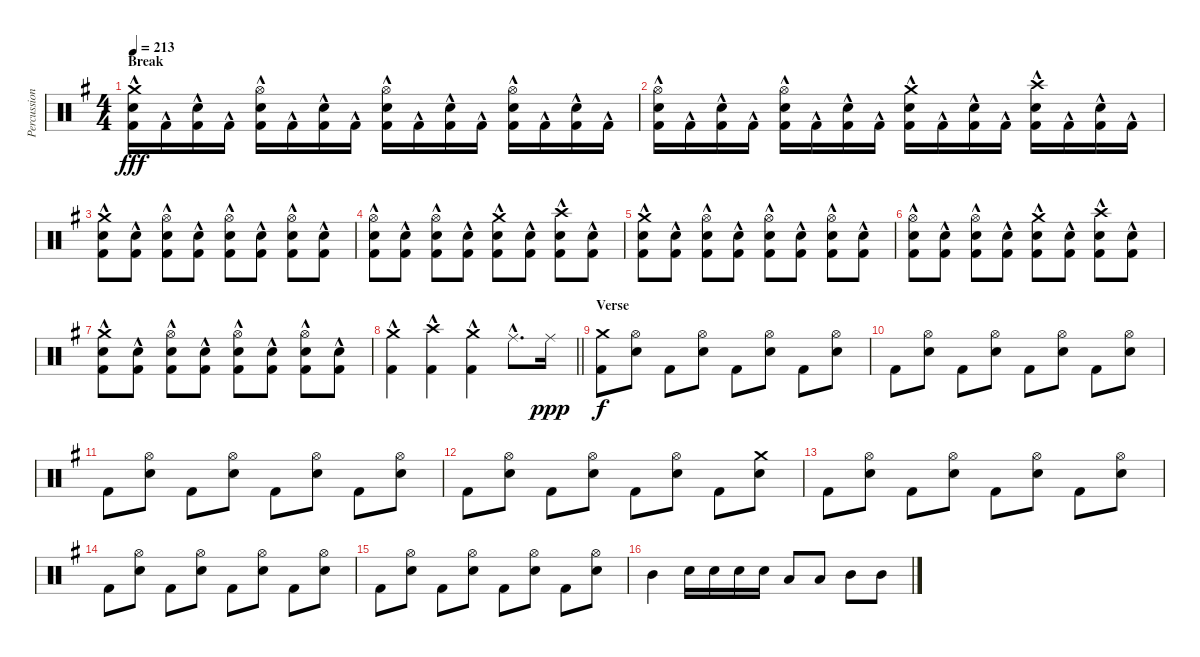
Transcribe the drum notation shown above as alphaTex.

\track ("Percussion" "Percussion") {instrument percussion}
\staff {score}
\articulation defaults
\ts (4 4)
\section ("" "Break")
\tempo 213
\clef neutral
\ks eminor
("Crash medium (hit)"{hac} "Snare (hit) 2"{hac} "Kick (hit) 2"{hac}).16{dy fff} "Kick (hit) 2"{hac}.16 ("Snare (hit) 2"{hac} "Kick (hit) 2"{hac}).16 "Kick (hit) 2"{hac}.16 ("Hi-Hat (open)"{hac} "Snare (hit) 2"{hac} "Kick (hit) 2"{hac}).16 "Kick (hit) 2"{hac}.16 ("Snare (hit) 2"{hac} "Kick (hit) 2"{hac}).16 "Kick (hit) 2"{hac}.16 ("Hi-Hat (open)"{hac} "Snare (hit) 2"{hac} "Kick (hit) 2"{hac}).16 "Kick (hit) 2"{hac}.16 ("Snare (hit) 2"{hac} "Kick (hit) 2"{hac}).16 "Kick (hit) 2"{hac}.16 ("Hi-Hat (open)"{hac} "Snare (hit) 2"{hac} "Kick (hit) 2"{hac}).16 "Kick (hit) 2"{hac}.16 ("Snare (hit) 2"{hac} "Kick (hit) 2"{hac}).16 "Kick (hit) 2"{hac}.16 |
("Hi-Hat (open)"{hac} "Snare (hit) 2"{hac} "Kick (hit) 2"{hac}).16 "Kick (hit) 2"{hac}.16 ("Snare (hit) 2"{hac} "Kick (hit) 2"{hac}).16 "Kick (hit) 2"{hac}.16 ("Hi-Hat (open)"{hac} "Snare (hit) 2"{hac} "Kick (hit) 2"{hac}).16 "Kick (hit) 2"{hac}.16 ("Snare (hit) 2"{hac} "Kick (hit) 2"{hac}).16 "Kick (hit) 2"{hac}.16 ("Crash medium (hit)"{hac} "Snare (hit) 2"{hac} "Kick (hit) 2"{hac}).16 "Kick (hit) 2"{hac}.16 ("Snare (hit) 2"{hac} "Kick (hit) 2"{hac}).16 "Kick (hit) 2"{hac}.16 ("Crash high (hit)"{hac} "Snare (hit) 2"{hac} "Kick (hit) 2"{hac}).16 "Kick (hit) 2"{hac}.16 ("Snare (hit) 2"{hac} "Kick (hit) 2"{hac}).16 "Kick (hit) 2"{hac}.16 |
("Crash medium (hit)"{hac} "Snare (hit) 2"{hac} "Kick (hit) 2"{hac}).8 ("Snare (hit) 2"{hac} "Kick (hit) 2"{hac}).8 ("Hi-Hat (open)"{hac} "Snare (hit) 2"{hac} "Kick (hit) 2"{hac}).8 ("Snare (hit) 2"{hac} "Kick (hit) 2"{hac}).8 ("Hi-Hat (open)"{hac} "Snare (hit) 2"{hac} "Kick (hit) 2"{hac}).8 ("Snare (hit) 2"{hac} "Kick (hit) 2"{hac}).8 ("Hi-Hat (open)"{hac} "Snare (hit) 2"{hac} "Kick (hit) 2"{hac}).8 ("Snare (hit) 2"{hac} "Kick (hit) 2"{hac}).8 |
("Hi-Hat (open)"{hac} "Snare (hit) 2"{hac} "Kick (hit) 2"{hac}).8 ("Snare (hit) 2"{hac} "Kick (hit) 2"{hac}).8 ("Hi-Hat (open)"{hac} "Snare (hit) 2"{hac} "Kick (hit) 2"{hac}).8 ("Snare (hit) 2"{hac} "Kick (hit) 2"{hac}).8 ("Crash medium (hit)"{hac} "Snare (hit) 2"{hac} "Kick (hit) 2"{hac}).8 ("Snare (hit) 2"{hac} "Kick (hit) 2"{hac}).8 ("Crash high (hit)"{hac} "Snare (hit) 2"{hac} "Kick (hit) 2"{hac}).8 ("Snare (hit) 2"{hac} "Kick (hit) 2"{hac}).8 |
("Crash medium (hit)"{hac} "Snare (hit) 2"{hac} "Kick (hit) 2"{hac}).8 ("Snare (hit) 2"{hac} "Kick (hit) 2"{hac}).8 ("Hi-Hat (open)"{hac} "Snare (hit) 2"{hac} "Kick (hit) 2"{hac}).8 ("Snare (hit) 2"{hac} "Kick (hit) 2"{hac}).8 ("Hi-Hat (open)"{hac} "Snare (hit) 2"{hac} "Kick (hit) 2"{hac}).8 ("Snare (hit) 2"{hac} "Kick (hit) 2"{hac}).8 ("Hi-Hat (open)"{hac} "Snare (hit) 2"{hac} "Kick (hit) 2"{hac}).8 ("Snare (hit) 2"{hac} "Kick (hit) 2"{hac}).8 |
("Hi-Hat (open)"{hac} "Snare (hit) 2"{hac} "Kick (hit) 2"{hac}).8 ("Snare (hit) 2"{hac} "Kick (hit) 2"{hac}).8 ("Hi-Hat (open)"{hac} "Snare (hit) 2"{hac} "Kick (hit) 2"{hac}).8 ("Snare (hit) 2"{hac} "Kick (hit) 2"{hac}).8 ("Crash medium (hit)"{hac} "Snare (hit) 2"{hac} "Kick (hit) 2"{hac}).8 ("Snare (hit) 2"{hac} "Kick (hit) 2"{hac}).8 ("Crash high (hit)"{hac} "Snare (hit) 2"{hac} "Kick (hit) 2"{hac}).8 ("Snare (hit) 2"{hac} "Kick (hit) 2"{hac}).8 |
("Crash medium (hit)"{hac} "Snare (hit) 2"{hac} "Kick (hit) 2"{hac}).8 ("Snare (hit) 2"{hac} "Kick (hit) 2"{hac}).8 ("Hi-Hat (open)"{hac} "Snare (hit) 2"{hac} "Kick (hit) 2"{hac}).8 ("Snare (hit) 2"{hac} "Kick (hit) 2"{hac}).8 ("Hi-Hat (open)"{hac} "Snare (hit) 2"{hac} "Kick (hit) 2"{hac}).8 ("Snare (hit) 2"{hac} "Kick (hit) 2"{hac}).8 ("Hi-Hat (open)"{hac} "Snare (hit) 2"{hac} "Kick (hit) 2"{hac}).8 ("Snare (hit) 2"{hac} "Kick (hit) 2"{hac}).8 |
\barLineRight lightlight
("Crash medium (hit)"{hac} "Kick (hit) 2"{hac}).4 ("Crash high (hit)"{hac} "Kick (hit) 2"{hac}).4 ("Crash medium (hit)"{hac} "Kick (hit) 2"{hac}).4 "Ride (middle)"{hac}.8{d} "Ride (middle)".16{dy ppp} |
\section ("" "Verse")
("Crash medium (hit)" "Kick (hit) 2").8{dy f} ("Hi-Hat (open)" "Snare (hit) 2").8 "Kick (hit) 2".8 ("Hi-Hat (open)" "Snare (hit) 2").8 "Kick (hit) 2".8 ("Hi-Hat (open)" "Snare (hit) 2").8 "Kick (hit) 2".8 ("Hi-Hat (open)" "Snare (hit) 2").8 |
"Kick (hit) 2".8 ("Hi-Hat (open)" "Snare (hit) 2").8 "Kick (hit) 2".8 ("Hi-Hat (open)" "Snare (hit) 2").8 "Kick (hit) 2".8 ("Hi-Hat (open)" "Snare (hit) 2").8 "Kick (hit) 2".8 ("Hi-Hat (open)" "Snare (hit) 2").8 |
"Kick (hit) 2".8 ("Hi-Hat (open)" "Snare (hit) 2").8 "Kick (hit) 2".8 ("Hi-Hat (open)" "Snare (hit) 2").8 "Kick (hit) 2".8 ("Hi-Hat (open)" "Snare (hit) 2").8 "Kick (hit) 2".8 ("Hi-Hat (open)" "Snare (hit) 2").8 |
"Kick (hit) 2".8 ("Hi-Hat (open)" "Snare (hit) 2").8 "Kick (hit) 2".8 ("Hi-Hat (open)" "Snare (hit) 2").8 "Kick (hit) 2".8 ("Hi-Hat (open)" "Snare (hit) 2").8 "Kick (hit) 2".8 ("Crash medium (hit)" "Snare (hit) 2").8 |
"Kick (hit) 2".8 ("Hi-Hat (open)" "Snare (hit) 2").8 "Kick (hit) 2".8 ("Hi-Hat (open)" "Snare (hit) 2").8 "Kick (hit) 2".8 ("Hi-Hat (open)" "Snare (hit) 2").8 "Kick (hit) 2".8 ("Hi-Hat (open)" "Snare (hit) 2").8 |
"Kick (hit) 2".8 ("Hi-Hat (open)" "Snare (hit) 2").8 "Kick (hit) 2".8 ("Hi-Hat (open)" "Snare (hit) 2").8 "Kick (hit) 2".8 ("Hi-Hat (open)" "Snare (hit) 2").8 "Kick (hit) 2".8 ("Hi-Hat (open)" "Snare (hit) 2").8 |
"Kick (hit) 2".8 ("Hi-Hat (open)" "Snare (hit) 2").8 "Kick (hit) 2".8 ("Hi-Hat (open)" "Snare (hit) 2").8 "Kick (hit) 2".8 ("Hi-Hat (open)" "Snare (hit) 2").8 "Kick (hit) 2".8 ("Hi-Hat (open)" "Snare (hit) 2").8 |
"Mid Tom (hit)".4 "Snare (hit) 2".16 "Snare (hit) 2".16 "Snare (hit) 2".16 "Snare (hit) 2".16 "Low Tom (hit)".8 "Low Tom (hit)".8 "Mid Tom (hit)".8 "Mid Tom (hit)".8
